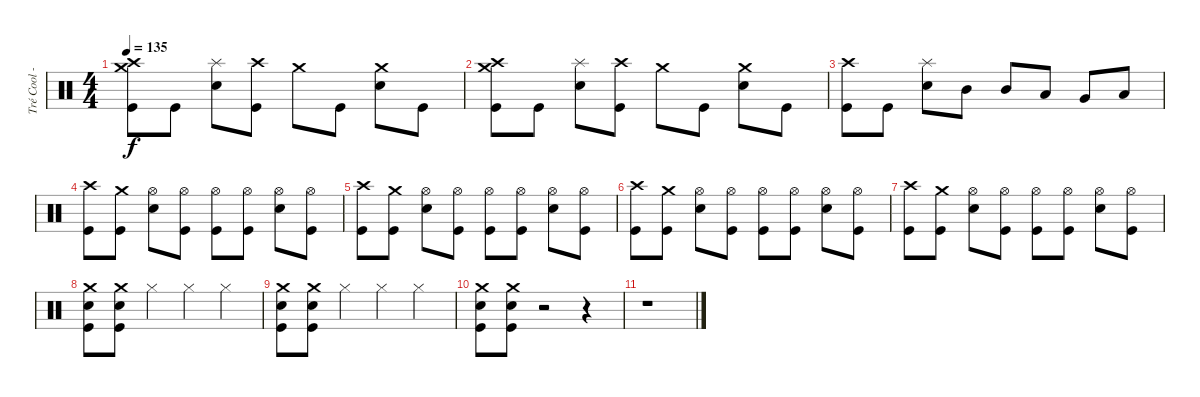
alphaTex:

\track ("Tré Cool - Drums" "Tré Cool -") {instrument percussion}
\staff {score}
\articulation defaults
\ts (4 4)
\tempo 135
\clef neutral
\ks c
("Crash medium (hit)" "Crash high (hit)" "Kick (hit)").8{dy f} "Kick (hit)".8 ("Splash (hit)" "Electric Snare (hit)").8 ("Crash high (hit)" "Kick (hit)").8 "Crash medium (hit)".8 "Kick (hit)".8 ("Crash medium (hit)" "Electric Snare (hit)").8 "Kick (hit)".8 |
("Crash medium (hit)" "Crash high (hit)" "Kick (hit)").8 "Kick (hit)".8 ("Splash (hit)" "Electric Snare (hit)").8 ("Crash high (hit)" "Kick (hit)").8 "Crash medium (hit)".8 "Kick (hit)".8 ("Crash medium (hit)" "Electric Snare (hit)").8 "Kick (hit)".8 |
("Crash high (hit)" "Kick (hit)").8 "Kick (hit)".8 ("Splash (hit)" "Electric Snare (hit)").8 "Mid Tom (hit)".8 "Mid Tom (hit)".8 "Low Tom (hit)".8 "Very Low Tom (hit)".8 "Low Floor Tom (hit)".8 |
("Crash high (hit)" "Kick (hit)").8 ("Crash medium (hit)" "Kick (hit)").8 ("Hi-Hat (open)" "Electric Snare (hit)").8 ("Hi-Hat (open)" "Kick (hit)").8 ("Hi-Hat (open)" "Kick (hit)").8 ("Hi-Hat (open)" "Kick (hit)").8 ("Hi-Hat (open)" "Electric Snare (hit)").8 ("Hi-Hat (open)" "Kick (hit)").8 |
("Crash high (hit)" "Kick (hit)").8 ("Crash medium (hit)" "Kick (hit)").8 ("Hi-Hat (open)" "Electric Snare (hit)").8 ("Hi-Hat (open)" "Kick (hit)").8 ("Hi-Hat (open)" "Kick (hit)").8 ("Hi-Hat (open)" "Kick (hit)").8 ("Hi-Hat (open)" "Electric Snare (hit)").8 ("Hi-Hat (open)" "Kick (hit)").8 |
("Crash high (hit)" "Kick (hit)").8 ("Crash medium (hit)" "Kick (hit)").8 ("Hi-Hat (open)" "Electric Snare (hit)").8 ("Hi-Hat (open)" "Kick (hit)").8 ("Hi-Hat (open)" "Kick (hit)").8 ("Hi-Hat (open)" "Kick (hit)").8 ("Hi-Hat (open)" "Electric Snare (hit)").8 ("Hi-Hat (open)" "Kick (hit)").8 |
("Crash high (hit)" "Kick (hit)").8 ("Crash medium (hit)" "Kick (hit)").8 ("Hi-Hat (open)" "Electric Snare (hit)").8 ("Hi-Hat (open)" "Kick (hit)").8 ("Hi-Hat (open)" "Kick (hit)").8 ("Hi-Hat (open)" "Kick (hit)").8 ("Hi-Hat (open)" "Electric Snare (hit)").8 ("Hi-Hat (open)" "Kick (hit)").8 |
("Electric Snare (hit)" "Crash medium (hit)" "Kick (hit)").8 ("Electric Snare (hit)" "Crash medium (hit)" "Kick (hit)").8 "Hi-Hat (closed)".4 "Hi-Hat (closed)".4 "Hi-Hat (closed)".4 |
("Electric Snare (hit)" "Crash medium (hit)" "Kick (hit)").8 ("Electric Snare (hit)" "Crash medium (hit)" "Kick (hit)").8 "Hi-Hat (closed)".4 "Hi-Hat (closed)".4 "Hi-Hat (closed)".4 |
("Electric Snare (hit)" "Crash medium (hit)" "Kick (hit)").8 ("Electric Snare (hit)" "Crash medium (hit)" "Kick (hit)").8 r.2 r.4 |
r.1
